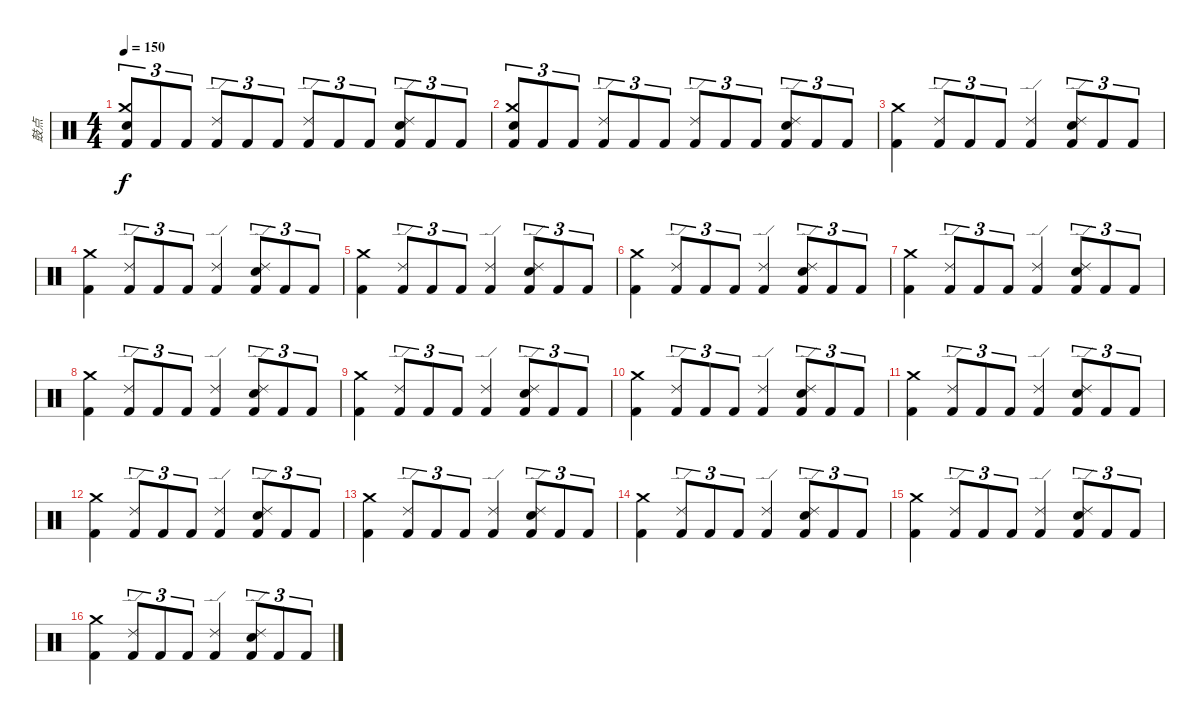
\track ("鼓点" "鼓点") {instrument percussion}
\staff {score}
\articulation defaults
\ts (4 4)
\tempo 150
\clef neutral
\ks c
("Kick (hit) 2" "Crash medium (hit)" "Snare (hit) 2").8{tu (3 2) dy f} "Kick (hit) 2".8{tu (3 2)} "Kick (hit) 2".8{tu (3 2)} ("Kick (hit) 2" "Ride (edge) 2").8{tu (3 2)} "Kick (hit) 2".8{tu (3 2)} "Kick (hit) 2".8{tu (3 2)} ("Kick (hit) 2" "Ride (edge) 2").8{tu (3 2)} "Kick (hit) 2".8{tu (3 2)} "Kick (hit) 2".8{tu (3 2)} ("Kick (hit) 2" "Ride (edge) 2" "Snare (hit) 2").8{tu (3 2)} "Kick (hit) 2".8{tu (3 2)} "Kick (hit) 2".8{tu (3 2)} |
("Kick (hit) 2" "Crash medium (hit)" "Snare (hit) 2").8{tu (3 2)} "Kick (hit) 2".8{tu (3 2)} "Kick (hit) 2".8{tu (3 2)} ("Kick (hit) 2" "Ride (edge) 2").8{tu (3 2)} "Kick (hit) 2".8{tu (3 2)} "Kick (hit) 2".8{tu (3 2)} ("Kick (hit) 2" "Ride (edge) 2").8{tu (3 2)} "Kick (hit) 2".8{tu (3 2)} "Kick (hit) 2".8{tu (3 2)} ("Kick (hit) 2" "Ride (edge) 2" "Snare (hit) 2").8{tu (3 2)} "Kick (hit) 2".8{tu (3 2)} "Kick (hit) 2".8{tu (3 2)} |
("Kick (hit) 2" "Crash medium (hit)").4 ("Kick (hit) 2" "Ride (edge) 2").8{tu (3 2)} "Kick (hit) 2".8{tu (3 2)} "Kick (hit) 2".8{tu (3 2)} ("Kick (hit) 2" "Ride (edge) 2").4 ("Kick (hit) 2" "Ride (edge) 2" "Snare (hit) 2").8{tu (3 2)} "Kick (hit) 2".8{tu (3 2)} "Kick (hit) 2".8{tu (3 2)} |
("Kick (hit) 2" "Crash medium (hit)").4 ("Kick (hit) 2" "Ride (edge) 2").8{tu (3 2)} "Kick (hit) 2".8{tu (3 2)} "Kick (hit) 2".8{tu (3 2)} ("Kick (hit) 2" "Ride (edge) 2").4 ("Kick (hit) 2" "Ride (edge) 2" "Snare (hit) 2").8{tu (3 2)} "Kick (hit) 2".8{tu (3 2)} "Kick (hit) 2".8{tu (3 2)} |
("Kick (hit) 2" "Crash medium (hit)").4 ("Kick (hit) 2" "Ride (edge) 2").8{tu (3 2)} "Kick (hit) 2".8{tu (3 2)} "Kick (hit) 2".8{tu (3 2)} ("Kick (hit) 2" "Ride (edge) 2").4 ("Kick (hit) 2" "Ride (edge) 2" "Snare (hit) 2").8{tu (3 2)} "Kick (hit) 2".8{tu (3 2)} "Kick (hit) 2".8{tu (3 2)} |
("Kick (hit) 2" "Crash medium (hit)").4 ("Kick (hit) 2" "Ride (edge) 2").8{tu (3 2)} "Kick (hit) 2".8{tu (3 2)} "Kick (hit) 2".8{tu (3 2)} ("Kick (hit) 2" "Ride (edge) 2").4 ("Kick (hit) 2" "Ride (edge) 2" "Snare (hit) 2").8{tu (3 2)} "Kick (hit) 2".8{tu (3 2)} "Kick (hit) 2".8{tu (3 2)} |
("Kick (hit) 2" "Crash medium (hit)").4 ("Kick (hit) 2" "Ride (edge) 2").8{tu (3 2)} "Kick (hit) 2".8{tu (3 2)} "Kick (hit) 2".8{tu (3 2)} ("Kick (hit) 2" "Ride (edge) 2").4 ("Kick (hit) 2" "Ride (edge) 2" "Snare (hit) 2").8{tu (3 2)} "Kick (hit) 2".8{tu (3 2)} "Kick (hit) 2".8{tu (3 2)} |
("Kick (hit) 2" "Crash medium (hit)").4 ("Kick (hit) 2" "Ride (edge) 2").8{tu (3 2)} "Kick (hit) 2".8{tu (3 2)} "Kick (hit) 2".8{tu (3 2)} ("Kick (hit) 2" "Ride (edge) 2").4 ("Kick (hit) 2" "Ride (edge) 2" "Snare (hit) 2").8{tu (3 2)} "Kick (hit) 2".8{tu (3 2)} "Kick (hit) 2".8{tu (3 2)} |
("Kick (hit) 2" "Crash medium (hit)").4 ("Kick (hit) 2" "Ride (edge) 2").8{tu (3 2)} "Kick (hit) 2".8{tu (3 2)} "Kick (hit) 2".8{tu (3 2)} ("Kick (hit) 2" "Ride (edge) 2").4 ("Kick (hit) 2" "Ride (edge) 2" "Snare (hit) 2").8{tu (3 2)} "Kick (hit) 2".8{tu (3 2)} "Kick (hit) 2".8{tu (3 2)} |
("Kick (hit) 2" "Crash medium (hit)").4 ("Kick (hit) 2" "Ride (edge) 2").8{tu (3 2)} "Kick (hit) 2".8{tu (3 2)} "Kick (hit) 2".8{tu (3 2)} ("Kick (hit) 2" "Ride (edge) 2").4 ("Kick (hit) 2" "Ride (edge) 2" "Snare (hit) 2").8{tu (3 2)} "Kick (hit) 2".8{tu (3 2)} "Kick (hit) 2".8{tu (3 2)} |
("Kick (hit) 2" "Crash medium (hit)").4 ("Kick (hit) 2" "Ride (edge) 2").8{tu (3 2)} "Kick (hit) 2".8{tu (3 2)} "Kick (hit) 2".8{tu (3 2)} ("Kick (hit) 2" "Ride (edge) 2").4 ("Kick (hit) 2" "Ride (edge) 2" "Snare (hit) 2").8{tu (3 2)} "Kick (hit) 2".8{tu (3 2)} "Kick (hit) 2".8{tu (3 2)} |
("Kick (hit) 2" "Crash medium (hit)").4 ("Kick (hit) 2" "Ride (edge) 2").8{tu (3 2)} "Kick (hit) 2".8{tu (3 2)} "Kick (hit) 2".8{tu (3 2)} ("Kick (hit) 2" "Ride (edge) 2").4 ("Kick (hit) 2" "Ride (edge) 2" "Snare (hit) 2").8{tu (3 2)} "Kick (hit) 2".8{tu (3 2)} "Kick (hit) 2".8{tu (3 2)} |
("Kick (hit) 2" "Crash medium (hit)").4 ("Kick (hit) 2" "Ride (edge) 2").8{tu (3 2)} "Kick (hit) 2".8{tu (3 2)} "Kick (hit) 2".8{tu (3 2)} ("Kick (hit) 2" "Ride (edge) 2").4 ("Kick (hit) 2" "Ride (edge) 2" "Snare (hit) 2").8{tu (3 2)} "Kick (hit) 2".8{tu (3 2)} "Kick (hit) 2".8{tu (3 2)} |
("Kick (hit) 2" "Crash medium (hit)").4 ("Kick (hit) 2" "Ride (edge) 2").8{tu (3 2)} "Kick (hit) 2".8{tu (3 2)} "Kick (hit) 2".8{tu (3 2)} ("Kick (hit) 2" "Ride (edge) 2").4 ("Kick (hit) 2" "Ride (edge) 2" "Snare (hit) 2").8{tu (3 2)} "Kick (hit) 2".8{tu (3 2)} "Kick (hit) 2".8{tu (3 2)} |
("Kick (hit) 2" "Crash medium (hit)").4 ("Kick (hit) 2" "Ride (edge) 2").8{tu (3 2)} "Kick (hit) 2".8{tu (3 2)} "Kick (hit) 2".8{tu (3 2)} ("Kick (hit) 2" "Ride (edge) 2").4 ("Kick (hit) 2" "Ride (edge) 2" "Snare (hit) 2").8{tu (3 2)} "Kick (hit) 2".8{tu (3 2)} "Kick (hit) 2".8{tu (3 2)} |
("Kick (hit) 2" "Crash medium (hit)").4 ("Kick (hit) 2" "Ride (edge) 2").8{tu (3 2)} "Kick (hit) 2".8{tu (3 2)} "Kick (hit) 2".8{tu (3 2)} ("Kick (hit) 2" "Ride (edge) 2").4 ("Kick (hit) 2" "Ride (edge) 2" "Snare (hit) 2").8{tu (3 2)} "Kick (hit) 2".8{tu (3 2)} "Kick (hit) 2".8{tu (3 2)}
